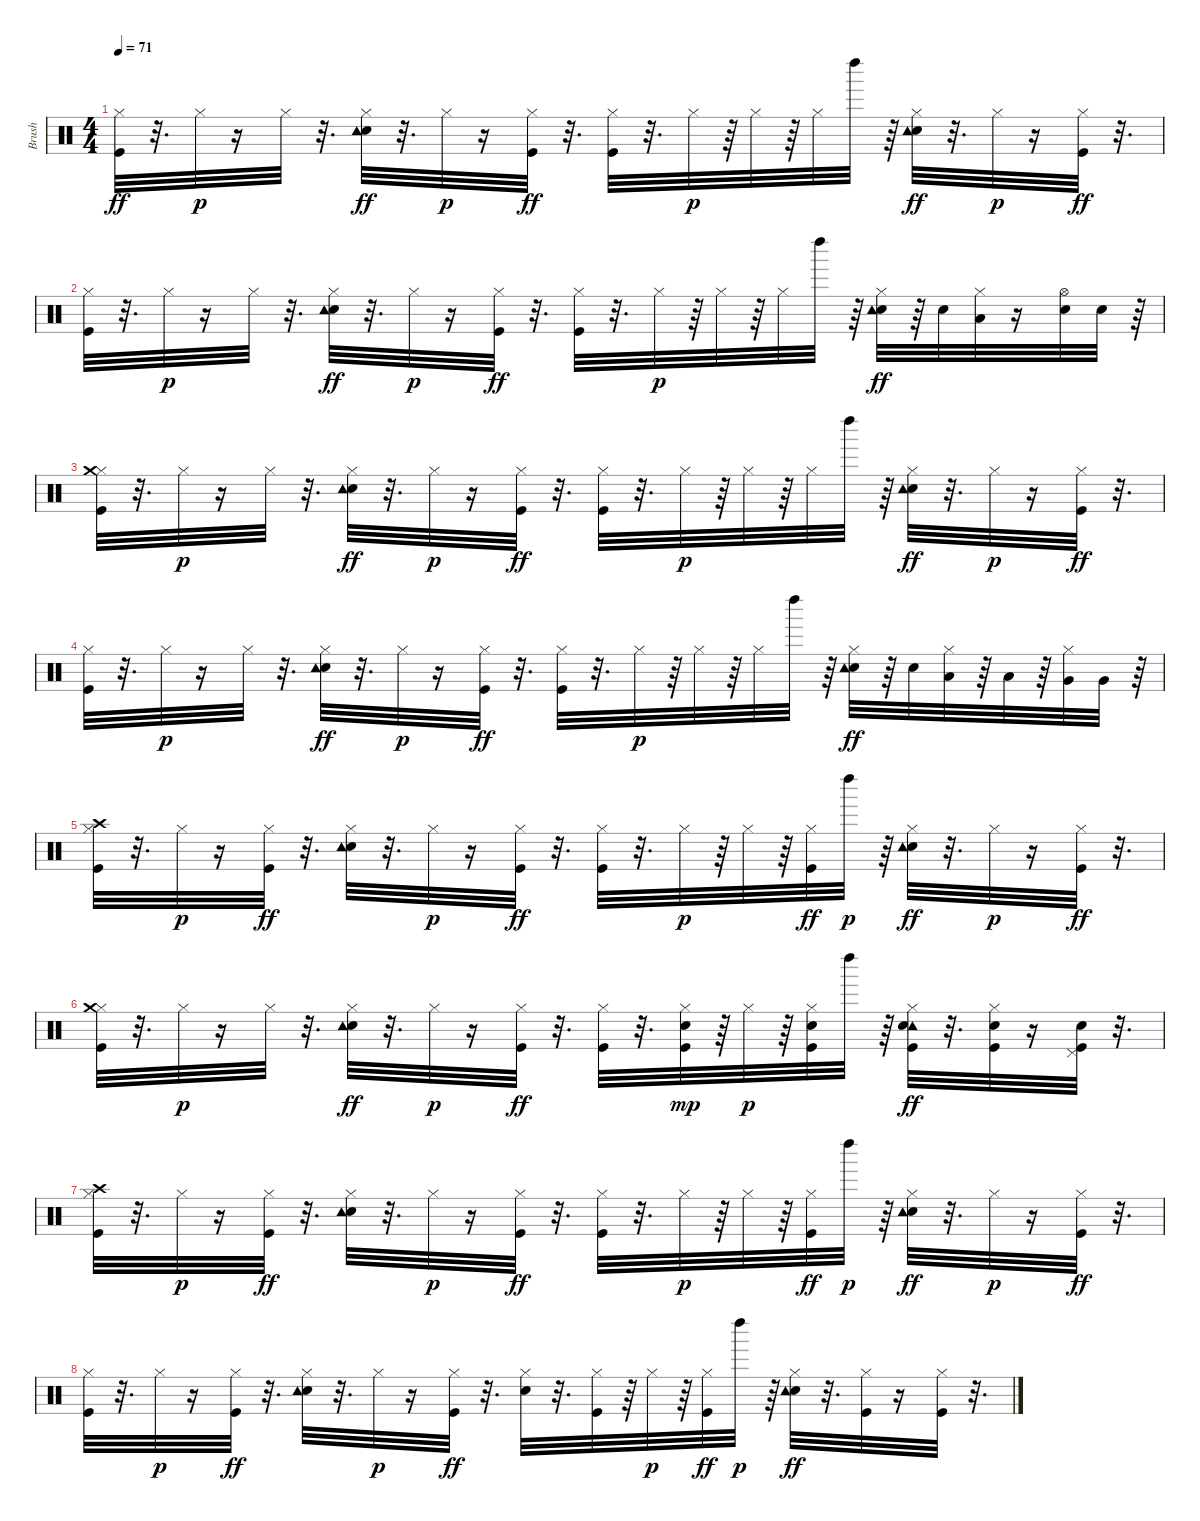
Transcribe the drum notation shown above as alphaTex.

\track ("Brush               " "Brush     ") {instrument percussion}
\staff {score}
\articulation defaults
\ts (4 4)
\tempo 71
\clef neutral
\ks c
("Hi-Hat (closed)" "Kick (hit)").32{dy ff} r.32{d} "Hi-Hat (closed)".32{dy p} r.16 "Hi-Hat (closed)".32 r.32{d} ("Hi-Hat (closed)" "Snare (hit) 2" "Tambourine (hit)").32{dy ff} r.32{d} "Hi-Hat (closed)".32{dy p} r.16 ("Hi-Hat (closed)" "Kick (hit)").32{dy ff} r.32{d} ("Hi-Hat (closed)" "Kick (hit)").32 r.32{d} "Hi-Hat (closed)".32{dy p} r.64 "Hi-Hat (closed)".32 r.64 "Hi-Hat (closed)".32 "Left Maraca (hit)".32 r.64 ("Hi-Hat (closed)" "Snare (hit) 2" "Tambourine (hit)").32{dy ff} r.32{d} "Hi-Hat (closed)".32{dy p} r.16 ("Hi-Hat (closed)" "Kick (hit)").32{dy ff} r.32{d} |
("Hi-Hat (closed)" "Kick (hit)").32 r.32{d} "Hi-Hat (closed)".32{dy p} r.16 "Hi-Hat (closed)".32 r.32{d} ("Hi-Hat (closed)" "Snare (hit) 2" "Tambourine (hit)").32{dy ff} r.32{d} "Hi-Hat (closed)".32{dy p} r.16 ("Hi-Hat (closed)" "Kick (hit)").32{dy ff} r.32{d} ("Hi-Hat (closed)" "Kick (hit)").32 r.32{d} "Hi-Hat (closed)".32{dy p} r.64 "Hi-Hat (closed)".32 r.64 "Hi-Hat (closed)".32 "Left Maraca (hit)".32 r.64 ("Hi-Hat (closed)" "Snare (hit) 2" "Tambourine (hit)").32{dy ff} r.64 "Snare (hit) 2".32 ("Hi-Hat (closed)" "Low Tom (hit)").32 r.16 ("Hi-Hat (open)" "Snare (hit) 2").32 "Snare (hit) 2".32 r.64 |
("Hi-Hat (closed)" "Kick (hit)" "Crash medium (hit)").32 r.32{d} "Hi-Hat (closed)".32{dy p} r.16 "Hi-Hat (closed)".32 r.32{d} ("Hi-Hat (closed)" "Snare (hit) 2" "Tambourine (hit)").32{dy ff} r.32{d} "Hi-Hat (closed)".32{dy p} r.16 ("Hi-Hat (closed)" "Kick (hit)").32{dy ff} r.32{d} ("Hi-Hat (closed)" "Kick (hit)").32 r.32{d} "Hi-Hat (closed)".32{dy p} r.64 "Hi-Hat (closed)".32 r.64 "Hi-Hat (closed)".32 "Left Maraca (hit)".32 r.64 ("Hi-Hat (closed)" "Snare (hit) 2" "Tambourine (hit)").32{dy ff} r.32{d} "Hi-Hat (closed)".32{dy p} r.16 ("Hi-Hat (closed)" "Kick (hit)").32{dy ff} r.32{d} |
("Hi-Hat (closed)" "Kick (hit)").32 r.32{d} "Hi-Hat (closed)".32{dy p} r.16 "Hi-Hat (closed)".32 r.32{d} ("Hi-Hat (closed)" "Snare (hit) 2" "Tambourine (hit)").32{dy ff} r.32{d} "Hi-Hat (closed)".32{dy p} r.16 ("Hi-Hat (closed)" "Kick (hit)").32{dy ff} r.32{d} ("Hi-Hat (closed)" "Kick (hit)").32 r.32{d} "Hi-Hat (closed)".32{dy p} r.64 "Hi-Hat (closed)".32 r.64 "Hi-Hat (closed)".32 "Left Maraca (hit)".32 r.64 ("Hi-Hat (closed)" "Snare (hit) 2" "Tambourine (hit)").32{dy ff} r.64 "Snare (hit) 2".32 ("Hi-Hat (closed)" "Low Tom (hit)").32 r.64 "Low Tom (hit)".32 r.64 ("Hi-Hat (closed)" "Very Low Tom (hit)").32 "Very Low Tom (hit)".32 r.64 |
("Hi-Hat (closed)" "Kick (hit)" "Crash high (hit)").32 r.32{d} "Hi-Hat (closed)".32{dy p} r.16 ("Hi-Hat (closed)" "Kick (hit)").32{dy ff} r.32{d} ("Hi-Hat (closed)" "Snare (hit) 2" "Tambourine (hit)").32 r.32{d} "Hi-Hat (closed)".32{dy p} r.16 ("Hi-Hat (closed)" "Kick (hit)").32{dy ff} r.32{d} ("Hi-Hat (closed)" "Kick (hit)").32 r.32{d} "Hi-Hat (closed)".32{dy p} r.64 "Hi-Hat (closed)".32 r.64 ("Hi-Hat (closed)" "Kick (hit)").32{dy ff} "Left Maraca (hit)".32{dy p} r.64 ("Hi-Hat (closed)" "Snare (hit) 2" "Tambourine (hit)").32{dy ff} r.32{d} "Hi-Hat (closed)".32{dy p} r.16 ("Hi-Hat (closed)" "Kick (hit)").32{dy ff} r.32{d} |
("Hi-Hat (closed)" "Kick (hit)" "Crash medium (hit)").32 r.32{d} "Hi-Hat (closed)".32{dy p} r.16 "Hi-Hat (closed)".32 r.32{d} ("Hi-Hat (closed)" "Snare (hit) 2" "Tambourine (hit)").32{dy ff} r.32{d} "Hi-Hat (closed)".32{dy p} r.16 ("Hi-Hat (closed)" "Kick (hit)").32{dy ff} r.32{d} ("Hi-Hat (closed)" "Kick (hit)").32 r.32{d} ("Hi-Hat (closed)" "Snare (hit) 2" "Kick (hit)").32{dy mp} r.64 "Hi-Hat (closed)".32{dy p} r.64 ("Hi-Hat (closed)" "Snare (hit) 2" "Kick (hit)").32 "Left Maraca (hit)".32 r.64 ("Hi-Hat (closed)" "Tambourine (hit)" "Snare (hit) 2" "Kick (hit)").32{dy ff} r.32{d} ("Hi-Hat (closed)" "Snare (hit) 2" "Kick (hit)").32 r.16 ("Pedal Hi-Hat (hit)" "Snare (hit) 2" "Kick (hit)").32 r.32{d} |
("Hi-Hat (closed)" "Kick (hit)" "Crash high (hit)").32 r.32{d} "Hi-Hat (closed)".32{dy p} r.16 ("Hi-Hat (closed)" "Kick (hit)").32{dy ff} r.32{d} ("Hi-Hat (closed)" "Snare (hit) 2" "Tambourine (hit)").32 r.32{d} "Hi-Hat (closed)".32{dy p} r.16 ("Hi-Hat (closed)" "Kick (hit)").32{dy ff} r.32{d} ("Hi-Hat (closed)" "Kick (hit)").32 r.32{d} "Hi-Hat (closed)".32{dy p} r.64 "Hi-Hat (closed)".32 r.64 ("Hi-Hat (closed)" "Kick (hit)").32{dy ff} "Left Maraca (hit)".32{dy p} r.64 ("Hi-Hat (closed)" "Snare (hit) 2" "Tambourine (hit)").32{dy ff} r.32{d} "Hi-Hat (closed)".32{dy p} r.16 ("Hi-Hat (closed)" "Kick (hit)").32{dy ff} r.32{d} |
("Hi-Hat (closed)" "Kick (hit)").32 r.32{d} "Hi-Hat (closed)".32{dy p} r.16 ("Hi-Hat (closed)" "Kick (hit)").32{dy ff} r.32{d} ("Hi-Hat (closed)" "Snare (hit) 2" "Tambourine (hit)").32 r.32{d} "Hi-Hat (closed)".32{dy p} r.16 ("Hi-Hat (closed)" "Kick (hit)").32{dy ff} r.32{d} ("Hi-Hat (closed)" "Snare (hit) 2").32 r.32{d} ("Hi-Hat (closed)" "Kick (hit)").32 r.64 "Hi-Hat (closed)".32{dy p} r.64 ("Hi-Hat (closed)" "Kick (hit)").32{dy ff} "Left Maraca (hit)".32{dy p} r.64 ("Hi-Hat (closed)" "Snare (hit) 2" "Tambourine (hit)").32{dy ff} r.32{d} ("Hi-Hat (closed)" "Kick (hit)").32 r.16 ("Hi-Hat (closed)" "Kick (hit)").32 r.32{d}
